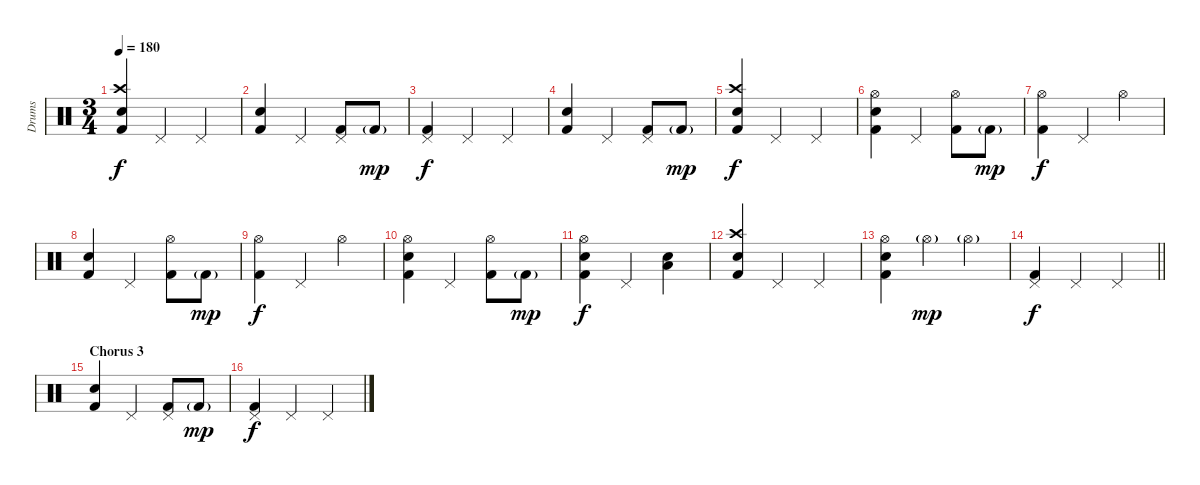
\track ("Drums" "Drums") {instrument percussion}
\staff {score}
\articulation defaults
\ts (3 4)
\tempo 180
\clef neutral
\ks c
("Snare (hit) 2" "Crash high (hit)" "Kick (hit) 2").4{dy f} "Pedal Hi-Hat (hit)".4 "Pedal Hi-Hat (hit)".4 |
("Electric Snare (hit)" "Kick (hit) 2").4 "Pedal Hi-Hat (hit)".4 ("Pedal Hi-Hat (hit)" "Kick (hit) 2").8 "Kick (hit) 2"{g}.8{dy mp} |
("Pedal Hi-Hat (hit)" "Kick (hit) 2").4{dy f} "Pedal Hi-Hat (hit)".4 "Pedal Hi-Hat (hit)".4 |
("Electric Snare (hit)" "Kick (hit) 2").4 "Pedal Hi-Hat (hit)".4 ("Pedal Hi-Hat (hit)" "Kick (hit) 2").8 "Kick (hit) 2"{g}.8{dy mp} |
("Crash high (hit)" "Snare (hit) 2" "Kick (hit) 2").4{dy f} "Pedal Hi-Hat (hit)".4 "Pedal Hi-Hat (hit)".4 |
("Hi-Hat (open)" "Electric Snare (hit)" "Kick (hit) 2").4 "Pedal Hi-Hat (hit)".4 ("Hi-Hat (open)" "Kick (hit) 2").8 "Kick (hit) 2"{g}.8{dy mp} |
("Hi-Hat (open)" "Kick (hit) 2").4{dy f} "Pedal Hi-Hat (hit)".4 "Hi-Hat (open)".4 |
("Electric Snare (hit)" "Kick (hit) 2").4 "Pedal Hi-Hat (hit)".4 ("Hi-Hat (open)" "Kick (hit) 2").8 "Kick (hit) 2"{g}.8{dy mp} |
("Hi-Hat (open)" "Kick (hit) 2").4{dy f} "Pedal Hi-Hat (hit)".4 "Hi-Hat (open)".4 |
("Hi-Hat (open)" "Electric Snare (hit)" "Kick (hit) 2").4 "Pedal Hi-Hat (hit)".4 ("Hi-Hat (open)" "Kick (hit) 2").8 "Kick (hit) 2"{g}.8{dy mp} |
("Hi-Hat (open)" "Electric Snare (hit)" "Kick (hit) 2").4{dy f} "Pedal Hi-Hat (hit)".4 ("Snare (hit) 2" "Low Tom (hit)").4 |
("Snare (hit) 2" "Crash high (hit)" "Kick (hit) 2").4 "Pedal Hi-Hat (hit)".4 "Pedal Hi-Hat (hit)".4 |
("Electric Snare (hit)" "Hi-Hat (open)" "Kick (hit) 2").4 "Hi-Hat (open)"{g}.4{dy mp} "Hi-Hat (open)"{g}.4 |
\barLineRight lightlight
("Pedal Hi-Hat (hit)" "Kick (hit) 2").4{dy f} "Pedal Hi-Hat (hit)".4 "Pedal Hi-Hat (hit)".4 |
\section ("" "Chorus 3")
("Electric Snare (hit)" "Kick (hit) 2").4 "Pedal Hi-Hat (hit)".4 ("Pedal Hi-Hat (hit)" "Kick (hit) 2").8 "Kick (hit) 2"{g}.8{dy mp} |
("Pedal Hi-Hat (hit)" "Kick (hit) 2").4{dy f} "Pedal Hi-Hat (hit)".4 "Pedal Hi-Hat (hit)".4
